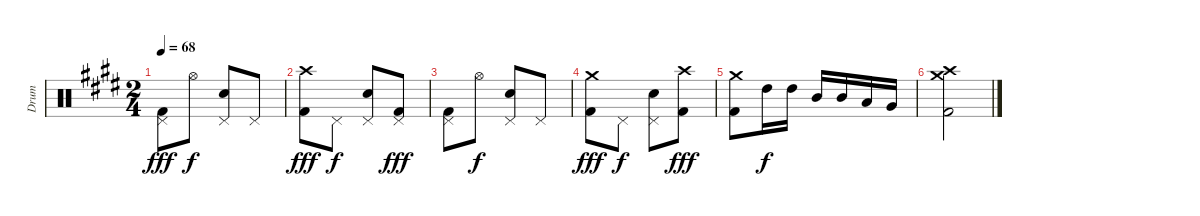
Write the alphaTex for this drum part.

\track ("Drum" "Drum") {instrument percussion}
\staff {score}
\articulation defaults
\ts (2 4)
\tempo 68
\clef neutral
\ks e
("Pedal Hi-Hat (hit)" "Kick (hit) 2").8{dy fff} "Hi-Hat (open)".8{dy f} ("Pedal Hi-Hat (hit)" "Snare (hit) 2").8 "Pedal Hi-Hat (hit)".8 |
("Crash high (hit)" "Kick (hit) 2").8{dy fff} "Pedal Hi-Hat (hit)".8{dy f} ("Pedal Hi-Hat (hit)" "Snare (hit) 2").8 ("Pedal Hi-Hat (hit)" "Kick (hit) 2").8{dy fff} |
("Pedal Hi-Hat (hit)" "Kick (hit) 2").8 "Hi-Hat (open)".8{dy f} ("Pedal Hi-Hat (hit)" "Snare (hit) 2").8 "Pedal Hi-Hat (hit)".8 |
("Crash medium (hit)" "Kick (hit) 2").8{dy fff} "Pedal Hi-Hat (hit)".8{dy f} ("Pedal Hi-Hat (hit)" "Snare (hit) 2").8 ("Crash high (hit)" "Kick (hit) 2").8{dy fff} |
("Crash medium (hit)" "Kick (hit) 2").8 "High Tom (hit)".16{dy f} "High Tom (hit)".16 "Mid Tom (hit)".16 "Mid Tom (hit)".16 "Low Tom (hit)".16 "Very Low Tom (hit)".16 |
("Crash high (hit)" "Crash medium (hit)" "Kick (hit) 2").2
